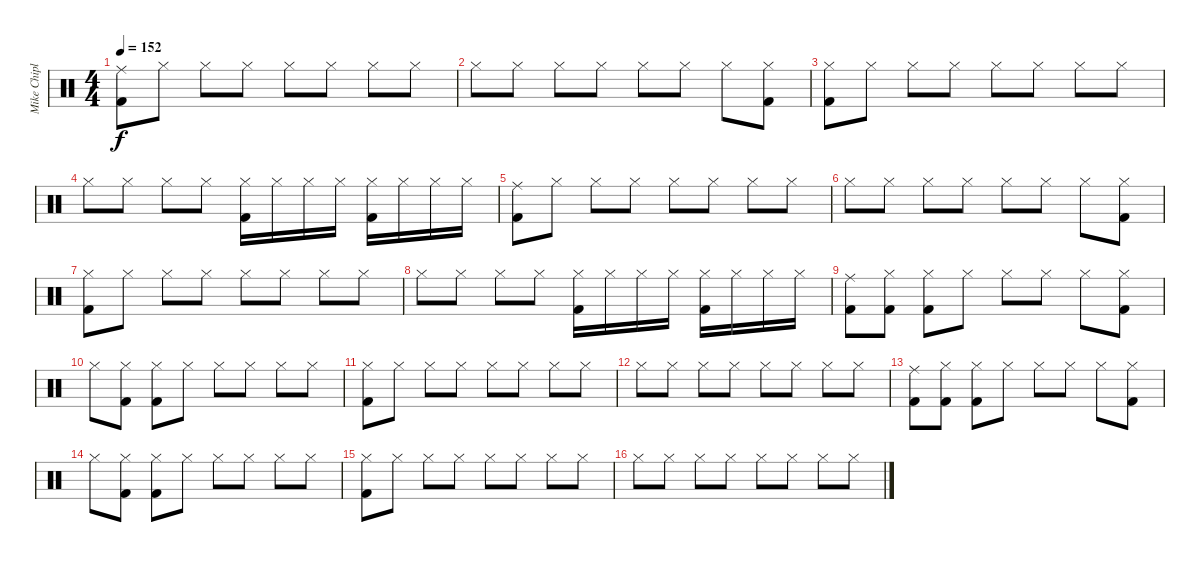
\track ("Mike Chiplin" "Mike Chipl") {instrument percussion}
\staff {score}
\articulation defaults
\ts (4 4)
\tempo 152
\clef neutral
\ks c
("Ride (middle)" "Kick (hit) 2").8{dy f} "Hi-Hat (closed)".8 "Hi-Hat (closed)".8 "Hi-Hat (closed)".8 "Hi-Hat (closed)".8 "Hi-Hat (closed)".8 "Hi-Hat (closed)".8 "Hi-Hat (closed)".8 |
"Hi-Hat (closed)".8 "Hi-Hat (closed)".8 "Hi-Hat (closed)".8 "Hi-Hat (closed)".8 "Hi-Hat (closed)".8 "Hi-Hat (closed)".8 "Hi-Hat (closed)".8 ("Hi-Hat (closed)" "Kick (hit) 2").8 |
("Hi-Hat (closed)" "Kick (hit) 2").8 "Hi-Hat (closed)".8 "Hi-Hat (closed)".8 "Hi-Hat (closed)".8 "Hi-Hat (closed)".8 "Hi-Hat (closed)".8 "Hi-Hat (closed)".8 "Hi-Hat (closed)".8 |
"Hi-Hat (closed)".8 "Hi-Hat (closed)".8 "Hi-Hat (closed)".8 "Hi-Hat (closed)".8 ("Hi-Hat (closed)" "Kick (hit) 2").16 "Hi-Hat (closed)".16 "Hi-Hat (closed)".16 "Hi-Hat (closed)".16 ("Hi-Hat (closed)" "Kick (hit) 2").16 "Hi-Hat (closed)".16 "Hi-Hat (closed)".16 "Hi-Hat (closed)".16 |
("Ride (middle)" "Kick (hit) 2").8 "Hi-Hat (closed)".8 "Hi-Hat (closed)".8 "Hi-Hat (closed)".8 "Hi-Hat (closed)".8 "Hi-Hat (closed)".8 "Hi-Hat (closed)".8 "Hi-Hat (closed)".8 |
"Hi-Hat (closed)".8 "Hi-Hat (closed)".8 "Hi-Hat (closed)".8 "Hi-Hat (closed)".8 "Hi-Hat (closed)".8 "Hi-Hat (closed)".8 "Hi-Hat (closed)".8 ("Hi-Hat (closed)" "Kick (hit) 2").8 |
("Hi-Hat (closed)" "Kick (hit) 2").8 "Hi-Hat (closed)".8 "Hi-Hat (closed)".8 "Hi-Hat (closed)".8 "Hi-Hat (closed)".8 "Hi-Hat (closed)".8 "Hi-Hat (closed)".8 "Hi-Hat (closed)".8 |
"Hi-Hat (closed)".8 "Hi-Hat (closed)".8 "Hi-Hat (closed)".8 "Hi-Hat (closed)".8 ("Hi-Hat (closed)" "Kick (hit) 2").16 "Hi-Hat (closed)".16 "Hi-Hat (closed)".16 "Hi-Hat (closed)".16 ("Hi-Hat (closed)" "Kick (hit) 2").16 "Hi-Hat (closed)".16 "Hi-Hat (closed)".16 "Hi-Hat (closed)".16 |
("Ride (middle)" "Kick (hit) 2").8 ("Hi-Hat (closed)" "Kick (hit) 2").8 ("Hi-Hat (closed)" "Kick (hit) 2").8 "Hi-Hat (closed)".8 "Hi-Hat (closed)".8 "Hi-Hat (closed)".8 "Hi-Hat (closed)".8 ("Hi-Hat (closed)" "Kick (hit) 2").8 |
"Hi-Hat (closed)".8 ("Hi-Hat (closed)" "Kick (hit) 2").8 ("Hi-Hat (closed)" "Kick (hit) 2").8 "Hi-Hat (closed)".8 "Hi-Hat (closed)".8 "Hi-Hat (closed)".8 "Hi-Hat (closed)".8 "Hi-Hat (closed)".8 |
("Hi-Hat (closed)" "Kick (hit) 2").8 "Hi-Hat (closed)".8 "Hi-Hat (closed)".8 "Hi-Hat (closed)".8 "Hi-Hat (closed)".8 "Hi-Hat (closed)".8 "Hi-Hat (closed)".8 "Hi-Hat (closed)".8 |
"Hi-Hat (closed)".8 "Hi-Hat (closed)".8 "Hi-Hat (closed)".8 "Hi-Hat (closed)".8 "Hi-Hat (closed)".8 "Hi-Hat (closed)".8 "Hi-Hat (closed)".8 "Hi-Hat (closed)".8 |
("Ride (middle)" "Kick (hit) 2").8 ("Hi-Hat (closed)" "Kick (hit) 2").8 ("Hi-Hat (closed)" "Kick (hit) 2").8 "Hi-Hat (closed)".8 "Hi-Hat (closed)".8 "Hi-Hat (closed)".8 "Hi-Hat (closed)".8 ("Hi-Hat (closed)" "Kick (hit) 2").8 |
"Hi-Hat (closed)".8 ("Hi-Hat (closed)" "Kick (hit) 2").8 ("Hi-Hat (closed)" "Kick (hit) 2").8 "Hi-Hat (closed)".8 "Hi-Hat (closed)".8 "Hi-Hat (closed)".8 "Hi-Hat (closed)".8 "Hi-Hat (closed)".8 |
("Hi-Hat (closed)" "Kick (hit) 2").8 "Hi-Hat (closed)".8 "Hi-Hat (closed)".8 "Hi-Hat (closed)".8 "Hi-Hat (closed)".8 "Hi-Hat (closed)".8 "Hi-Hat (closed)".8 "Hi-Hat (closed)".8 |
"Hi-Hat (closed)".8 "Hi-Hat (closed)".8 "Hi-Hat (closed)".8 "Hi-Hat (closed)".8 "Hi-Hat (closed)".8 "Hi-Hat (closed)".8 "Hi-Hat (closed)".8 "Hi-Hat (closed)".8
